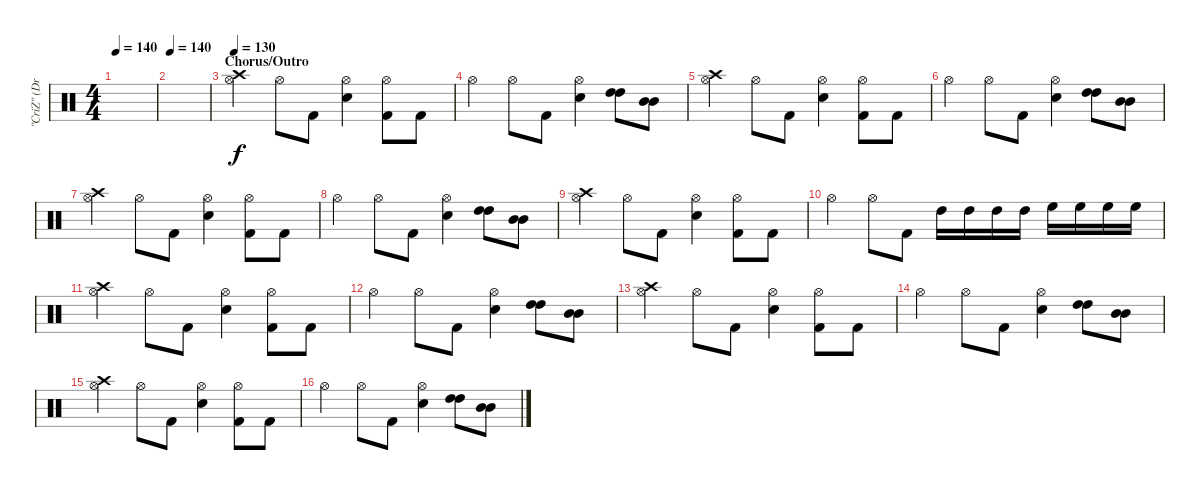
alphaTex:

\track ("\"CriZ\" (Drums/Percussion)" "\"CriZ\" (Dr") {instrument percussion}
\staff {score}
\articulation defaults
\ts (4 4)
\tempo 140
\clef neutral
\ks c
|
\tempo 140
|
\section ("" "Chorus/Outro")
\tempo 130
("Crash high (hit)" "Hi-Hat (open)").4 "Hi-Hat (open)".8 "Kick (hit) 2".8 ("Hi-Hat (open)" "Snare (hit) 2").4 ("Hi-Hat (open)" "Kick (hit) 2").8 "Kick (hit) 2".8 |
"Hi-Hat (open)".4 "Hi-Hat (open)".8 "Kick (hit) 2".8 ("Hi-Hat (open)" "Snare (hit) 2").4 ("High Tom (hit)" "High Tom (hit)").8 ("Mid Tom (hit)" "Mid Tom (hit)").8 |
("Crash high (hit)" "Hi-Hat (open)").4 "Hi-Hat (open)".8 "Kick (hit) 2".8 ("Hi-Hat (open)" "Snare (hit) 2").4 ("Hi-Hat (open)" "Kick (hit) 2").8 "Kick (hit) 2".8 |
"Hi-Hat (open)".4 "Hi-Hat (open)".8 "Kick (hit) 2".8 ("Hi-Hat (open)" "Snare (hit) 2").4 ("High Tom (hit)" "High Tom (hit)").8 ("Mid Tom (hit)" "Mid Tom (hit)").8 |
("Crash high (hit)" "Hi-Hat (open)").4 "Hi-Hat (open)".8 "Kick (hit) 2".8 ("Hi-Hat (open)" "Snare (hit) 2").4 ("Hi-Hat (open)" "Kick (hit) 2").8 "Kick (hit) 2".8 |
"Hi-Hat (open)".4 "Hi-Hat (open)".8 "Kick (hit) 2".8 ("Hi-Hat (open)" "Snare (hit) 2").4 ("High Tom (hit)" "High Tom (hit)").8 ("Mid Tom (hit)" "Mid Tom (hit)").8 |
("Crash high (hit)" "Hi-Hat (open)").4 "Hi-Hat (open)".8 "Kick (hit) 2".8 ("Hi-Hat (open)" "Snare (hit) 2").4 ("Hi-Hat (open)" "Kick (hit) 2").8 "Kick (hit) 2".8 |
"Hi-Hat (open)".4 "Hi-Hat (open)".8 "Kick (hit) 2".8 "High Tom (hit)".16 "High Tom (hit)".16 "High Tom (hit)".16 "High Tom (hit)".16 "High Floor Tom (hit)".16 "High Floor Tom (hit)".16 "High Floor Tom (hit)".16 "High Floor Tom (hit)".16 |
("Crash high (hit)" "Hi-Hat (open)").4 "Hi-Hat (open)".8 "Kick (hit) 2".8 ("Hi-Hat (open)" "Snare (hit) 2").4 ("Hi-Hat (open)" "Kick (hit) 2").8 "Kick (hit) 2".8 |
"Hi-Hat (open)".4 "Hi-Hat (open)".8 "Kick (hit) 2".8 ("Hi-Hat (open)" "Snare (hit) 2").4 ("High Tom (hit)" "High Tom (hit)").8 ("Mid Tom (hit)" "Mid Tom (hit)").8 |
("Crash high (hit)" "Hi-Hat (open)").4 "Hi-Hat (open)".8 "Kick (hit) 2".8 ("Hi-Hat (open)" "Snare (hit) 2").4 ("Hi-Hat (open)" "Kick (hit) 2").8 "Kick (hit) 2".8 |
"Hi-Hat (open)".4 "Hi-Hat (open)".8 "Kick (hit) 2".8 ("Hi-Hat (open)" "Snare (hit) 2").4 ("High Tom (hit)" "High Tom (hit)").8 ("Mid Tom (hit)" "Mid Tom (hit)").8 |
("Crash high (hit)" "Hi-Hat (open)").4 "Hi-Hat (open)".8 "Kick (hit) 2".8 ("Hi-Hat (open)" "Snare (hit) 2").4 ("Hi-Hat (open)" "Kick (hit) 2").8 "Kick (hit) 2".8 |
"Hi-Hat (open)".4 "Hi-Hat (open)".8 "Kick (hit) 2".8 ("Hi-Hat (open)" "Snare (hit) 2").4 ("High Tom (hit)" "High Tom (hit)").8 ("Mid Tom (hit)" "Mid Tom (hit)").8
